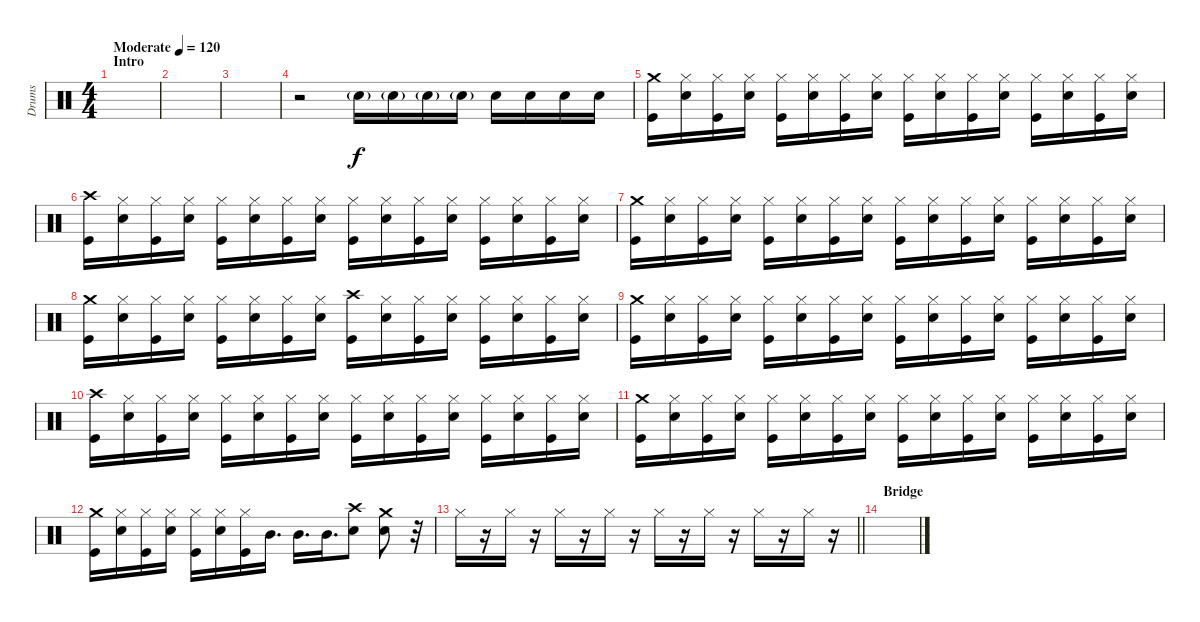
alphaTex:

\track ("Drums" "Drums") {instrument percussion}
\staff {score}
\articulation defaults
\ts (4 4)
\section ("" "Intro")
\tempo (120 "Moderate")
\clef neutral
\ks c
|
|
|
r.2 "Electric Snare (hit)"{g}.16 "Electric Snare (hit)"{g}.16 "Electric Snare (hit)"{g}.16 "Electric Snare (hit)"{g}.16 "Electric Snare (hit)".16{dy f} "Electric Snare (hit)".16 "Electric Snare (hit)".16 "Electric Snare (hit)".16 |
("Crash medium (hit)" "Kick (hit)").16 ("Hi-Hat (closed)" "Electric Snare (hit)").16 ("Hi-Hat (closed)" "Kick (hit)").16 ("Hi-Hat (closed)" "Electric Snare (hit)").16 ("Hi-Hat (closed)" "Kick (hit)").16 ("Hi-Hat (closed)" "Electric Snare (hit)").16 ("Hi-Hat (closed)" "Kick (hit)").16 ("Hi-Hat (closed)" "Electric Snare (hit)").16 ("Hi-Hat (closed)" "Kick (hit)").16 ("Hi-Hat (closed)" "Electric Snare (hit)").16 ("Hi-Hat (closed)" "Kick (hit)").16 ("Hi-Hat (closed)" "Electric Snare (hit)").16 ("Hi-Hat (closed)" "Kick (hit)").16 ("Hi-Hat (closed)" "Electric Snare (hit)").16 ("Hi-Hat (closed)" "Kick (hit)").16 ("Hi-Hat (closed)" "Electric Snare (hit)").16 |
("Crash high (hit)" "Kick (hit)").16 ("Hi-Hat (closed)" "Electric Snare (hit)").16 ("Hi-Hat (closed)" "Kick (hit)").16 ("Hi-Hat (closed)" "Electric Snare (hit)").16 ("Hi-Hat (closed)" "Kick (hit)").16 ("Hi-Hat (closed)" "Electric Snare (hit)").16 ("Hi-Hat (closed)" "Kick (hit)").16 ("Hi-Hat (closed)" "Electric Snare (hit)").16 ("Hi-Hat (closed)" "Kick (hit)").16 ("Hi-Hat (closed)" "Electric Snare (hit)").16 ("Hi-Hat (closed)" "Kick (hit)").16 ("Hi-Hat (closed)" "Electric Snare (hit)").16 ("Hi-Hat (closed)" "Kick (hit)").16 ("Hi-Hat (closed)" "Electric Snare (hit)").16 ("Hi-Hat (closed)" "Kick (hit)").16 ("Hi-Hat (closed)" "Electric Snare (hit)").16 |
("Crash medium (hit)" "Kick (hit)").16 ("Hi-Hat (closed)" "Electric Snare (hit)").16 ("Hi-Hat (closed)" "Kick (hit)").16 ("Hi-Hat (closed)" "Electric Snare (hit)").16 ("Hi-Hat (closed)" "Kick (hit)").16 ("Hi-Hat (closed)" "Electric Snare (hit)").16 ("Hi-Hat (closed)" "Kick (hit)").16 ("Hi-Hat (closed)" "Electric Snare (hit)").16 ("Hi-Hat (closed)" "Kick (hit)").16 ("Hi-Hat (closed)" "Electric Snare (hit)").16 ("Hi-Hat (closed)" "Kick (hit)").16 ("Hi-Hat (closed)" "Electric Snare (hit)").16 ("Hi-Hat (closed)" "Kick (hit)").16 ("Hi-Hat (closed)" "Electric Snare (hit)").16 ("Hi-Hat (closed)" "Kick (hit)").16 ("Hi-Hat (closed)" "Electric Snare (hit)").16 |
("Crash medium (hit)" "Kick (hit)").16 ("Hi-Hat (closed)" "Electric Snare (hit)").16 ("Hi-Hat (closed)" "Kick (hit)").16 ("Hi-Hat (closed)" "Electric Snare (hit)").16 ("Hi-Hat (closed)" "Kick (hit)").16 ("Hi-Hat (closed)" "Electric Snare (hit)").16 ("Hi-Hat (closed)" "Kick (hit)").16 ("Hi-Hat (closed)" "Electric Snare (hit)").16 ("Crash high (hit)" "Kick (hit)").16 ("Hi-Hat (closed)" "Electric Snare (hit)").16 ("Hi-Hat (closed)" "Kick (hit)").16 ("Hi-Hat (closed)" "Electric Snare (hit)").16 ("Hi-Hat (closed)" "Kick (hit)").16 ("Hi-Hat (closed)" "Electric Snare (hit)").16 ("Hi-Hat (closed)" "Kick (hit)").16 ("Hi-Hat (closed)" "Electric Snare (hit)").16 |
("Crash medium (hit)" "Kick (hit)").16 ("Hi-Hat (closed)" "Electric Snare (hit)").16 ("Hi-Hat (closed)" "Kick (hit)").16 ("Hi-Hat (closed)" "Electric Snare (hit)").16 ("Hi-Hat (closed)" "Kick (hit)").16 ("Hi-Hat (closed)" "Electric Snare (hit)").16 ("Hi-Hat (closed)" "Kick (hit)").16 ("Hi-Hat (closed)" "Electric Snare (hit)").16 ("Hi-Hat (closed)" "Kick (hit)").16 ("Hi-Hat (closed)" "Electric Snare (hit)").16 ("Hi-Hat (closed)" "Kick (hit)").16 ("Hi-Hat (closed)" "Electric Snare (hit)").16 ("Hi-Hat (closed)" "Kick (hit)").16 ("Hi-Hat (closed)" "Electric Snare (hit)").16 ("Hi-Hat (closed)" "Kick (hit)").16 ("Hi-Hat (closed)" "Electric Snare (hit)").16 |
("Crash high (hit)" "Kick (hit)").16 ("Hi-Hat (closed)" "Electric Snare (hit)").16 ("Hi-Hat (closed)" "Kick (hit)").16 ("Hi-Hat (closed)" "Electric Snare (hit)").16 ("Hi-Hat (closed)" "Kick (hit)").16 ("Hi-Hat (closed)" "Electric Snare (hit)").16 ("Hi-Hat (closed)" "Kick (hit)").16 ("Hi-Hat (closed)" "Electric Snare (hit)").16 ("Hi-Hat (closed)" "Kick (hit)").16 ("Hi-Hat (closed)" "Electric Snare (hit)").16 ("Hi-Hat (closed)" "Kick (hit)").16 ("Hi-Hat (closed)" "Electric Snare (hit)").16 ("Hi-Hat (closed)" "Kick (hit)").16 ("Hi-Hat (closed)" "Electric Snare (hit)").16 ("Hi-Hat (closed)" "Kick (hit)").16 ("Hi-Hat (closed)" "Electric Snare (hit)").16 |
("Crash medium (hit)" "Kick (hit)").16 ("Hi-Hat (closed)" "Electric Snare (hit)").16 ("Hi-Hat (closed)" "Kick (hit)").16 ("Hi-Hat (closed)" "Electric Snare (hit)").16 ("Hi-Hat (closed)" "Kick (hit)").16 ("Hi-Hat (closed)" "Electric Snare (hit)").16 ("Hi-Hat (closed)" "Kick (hit)").16 ("Hi-Hat (closed)" "Electric Snare (hit)").16 ("Hi-Hat (closed)" "Kick (hit)").16 ("Hi-Hat (closed)" "Electric Snare (hit)").16 ("Hi-Hat (closed)" "Kick (hit)").16 ("Hi-Hat (closed)" "Electric Snare (hit)").16 ("Hi-Hat (closed)" "Kick (hit)").16 ("Hi-Hat (closed)" "Electric Snare (hit)").16 ("Hi-Hat (closed)" "Kick (hit)").16 ("Hi-Hat (closed)" "Electric Snare (hit)").16 |
("Crash medium (hit)" "Kick (hit)").16 ("Hi-Hat (closed)" "Electric Snare (hit)").16 ("Hi-Hat (closed)" "Kick (hit)").16 ("Hi-Hat (closed)" "Electric Snare (hit)").16 ("Hi-Hat (closed)" "Kick (hit)").16 ("Hi-Hat (closed)" "Electric Snare (hit)").16 ("Hi-Hat (closed)" "Kick (hit)").16 "Mid Tom (hit)".16{d} "Mid Tom (hit)".16{d} "Mid Tom (hit)".16{d} ("Crash high (hit)" "Electric Snare (hit)").8 ("Crash medium (hit)" "Electric Snare (hit)").8 r.32 |
\barLineRight lightlight "Hi-Hat (closed)".16
r.16 "Hi-Hat (closed)".16 r.16 "Hi-Hat (closed)".16 r.16 "Hi-Hat (closed)".16 r.16 "Hi-Hat (closed)".16 r.16 "Hi-Hat (closed)".16 r.16 "Hi-Hat (closed)".16 r.16 "Hi-Hat (closed)".16 r.16 |
\section ("" "Bridge")
